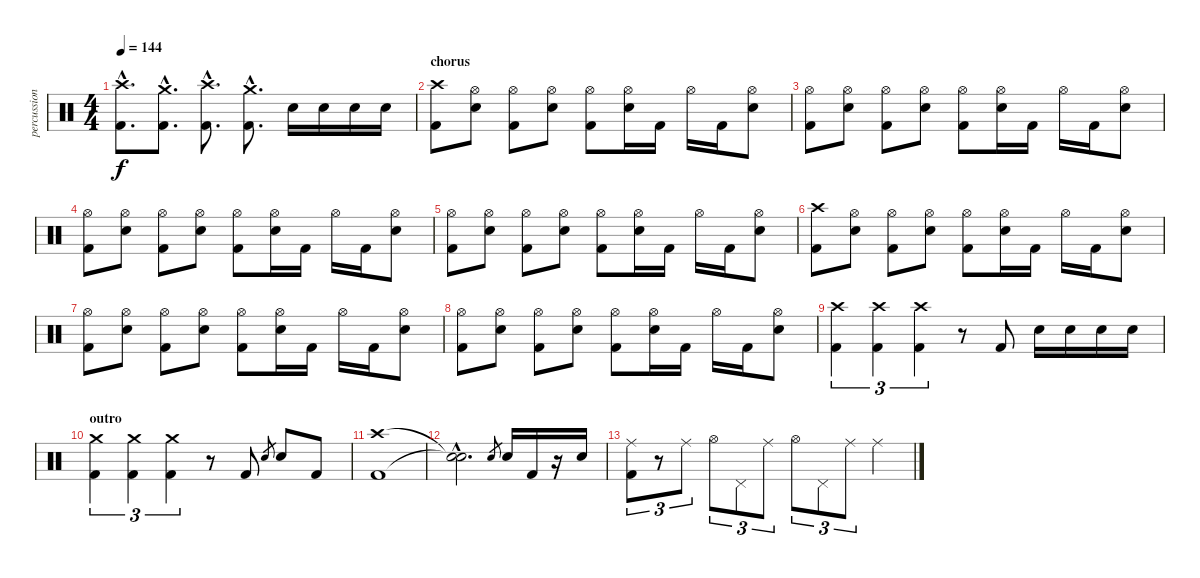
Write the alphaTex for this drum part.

\track ("percussion" "percussion") {instrument percussion}
\staff {score}
\articulation defaults
\ts (4 4)
\tempo 144
\clef neutral
\ks c
("Crash high (hit)"{hac} "Kick (hit) 2"{hac}).8{d dy f} ("Crash medium (hit)"{hac} "Kick (hit) 2"{hac}).8{d} ("Crash high (hit)"{hac} "Kick (hit) 2"{hac}).8{d} ("Crash medium (hit)"{hac} "Kick (hit) 2"{hac}).8{d} "Electric Snare (hit)".16 "Electric Snare (hit)".16 "Electric Snare (hit)".16 "Electric Snare (hit)".16 |
\section ("" "chorus")
("Crash high (hit)" "Kick (hit) 2").8 ("Hi-Hat (open)" "Electric Snare (hit)").8 ("Hi-Hat (open)" "Kick (hit) 2").8 ("Hi-Hat (open)" "Electric Snare (hit)").8 ("Hi-Hat (open)" "Kick (hit) 2").8 ("Hi-Hat (open)" "Electric Snare (hit)").16 "Kick (hit) 2".16 "Hi-Hat (open)".16 "Kick (hit) 2".16 ("Hi-Hat (open)" "Electric Snare (hit)").8 |
("Hi-Hat (open)" "Kick (hit) 2").8 ("Hi-Hat (open)" "Electric Snare (hit)").8 ("Hi-Hat (open)" "Kick (hit) 2").8 ("Hi-Hat (open)" "Electric Snare (hit)").8 ("Hi-Hat (open)" "Kick (hit) 2").8 ("Hi-Hat (open)" "Electric Snare (hit)").16 "Kick (hit) 2".16 "Hi-Hat (open)".16 "Kick (hit) 2".16 ("Hi-Hat (open)" "Electric Snare (hit)").8 |
("Hi-Hat (open)" "Kick (hit) 2").8 ("Hi-Hat (open)" "Electric Snare (hit)").8 ("Hi-Hat (open)" "Kick (hit) 2").8 ("Hi-Hat (open)" "Electric Snare (hit)").8 ("Hi-Hat (open)" "Kick (hit) 2").8 ("Hi-Hat (open)" "Electric Snare (hit)").16 "Kick (hit) 2".16 "Hi-Hat (open)".16 "Kick (hit) 2".16 ("Hi-Hat (open)" "Electric Snare (hit)").8 |
("Hi-Hat (open)" "Kick (hit) 2").8 ("Hi-Hat (open)" "Electric Snare (hit)").8 ("Hi-Hat (open)" "Kick (hit) 2").8 ("Hi-Hat (open)" "Electric Snare (hit)").8 ("Hi-Hat (open)" "Kick (hit) 2").8 ("Hi-Hat (open)" "Electric Snare (hit)").16 "Kick (hit) 2".16 "Hi-Hat (open)".16 "Kick (hit) 2".16 ("Hi-Hat (open)" "Electric Snare (hit)").8 |
("Crash high (hit)" "Kick (hit) 2").8 ("Hi-Hat (open)" "Electric Snare (hit)").8 ("Hi-Hat (open)" "Kick (hit) 2").8 ("Hi-Hat (open)" "Electric Snare (hit)").8 ("Hi-Hat (open)" "Kick (hit) 2").8 ("Hi-Hat (open)" "Electric Snare (hit)").16 "Kick (hit) 2".16 "Hi-Hat (open)".16 "Kick (hit) 2".16 ("Hi-Hat (open)" "Electric Snare (hit)").8 |
("Hi-Hat (open)" "Kick (hit) 2").8 ("Hi-Hat (open)" "Electric Snare (hit)").8 ("Hi-Hat (open)" "Kick (hit) 2").8 ("Hi-Hat (open)" "Electric Snare (hit)").8 ("Hi-Hat (open)" "Kick (hit) 2").8 ("Hi-Hat (open)" "Electric Snare (hit)").16 "Kick (hit) 2".16 "Hi-Hat (open)".16 "Kick (hit) 2".16 ("Hi-Hat (open)" "Electric Snare (hit)").8 |
("Hi-Hat (open)" "Kick (hit) 2").8 ("Hi-Hat (open)" "Electric Snare (hit)").8 ("Hi-Hat (open)" "Kick (hit) 2").8 ("Hi-Hat (open)" "Electric Snare (hit)").8 ("Hi-Hat (open)" "Kick (hit) 2").8 ("Hi-Hat (open)" "Electric Snare (hit)").16 "Kick (hit) 2".16 "Hi-Hat (open)".16 "Kick (hit) 2".16 ("Hi-Hat (open)" "Electric Snare (hit)").8 |
("Crash high (hit)" "Kick (hit) 2").4{tu (3 2)} ("Crash high (hit)" "Kick (hit) 2").4{tu (3 2)} ("Crash high (hit)" "Kick (hit) 2").4{tu (3 2)} r.8 "Kick (hit) 2".8 "Electric Snare (hit)".16 "Electric Snare (hit)".16 "Electric Snare (hit)".16 "Electric Snare (hit)".16 |
\section ("" "outro")
("Crash medium (hit)" "Kick (hit) 2").4{tu (3 2)} ("Crash medium (hit)" "Kick (hit) 2").4{tu (3 2)} ("Crash medium (hit)" "Kick (hit) 2").4{tu (3 2)} r.8 "Kick (hit) 2".8 "Electric Snare (hit)".8{gr} "Electric Snare (hit)".8 "Kick (hit) 2".8 |
("Crash high (hit)" "Kick (hit) 2").1 |
("Snare (hit)"{hac t} "Snare (hit)"{hac t}).2{d} "Electric Snare (hit)".8{gr} "Electric Snare (hit)".16 "Kick (hit) 2".16 r.16 "Electric Snare (hit)".16 |
("Ride (middle)" "Kick (hit) 2").8{tu (3 2)} r.8{tu (3 2)} "Ride (middle)".8{tu (3 2)} "Hi-Hat (open)".8{tu (3 2)} "Pedal Hi-Hat (hit)".8{tu (3 2)} "Ride (middle)".8{tu (3 2)} "Hi-Hat (open)".8{tu (3 2)} "Pedal Hi-Hat (hit)".8{tu (3 2)} "Ride (middle)".8{tu (3 2)} "Ride (middle)".4
